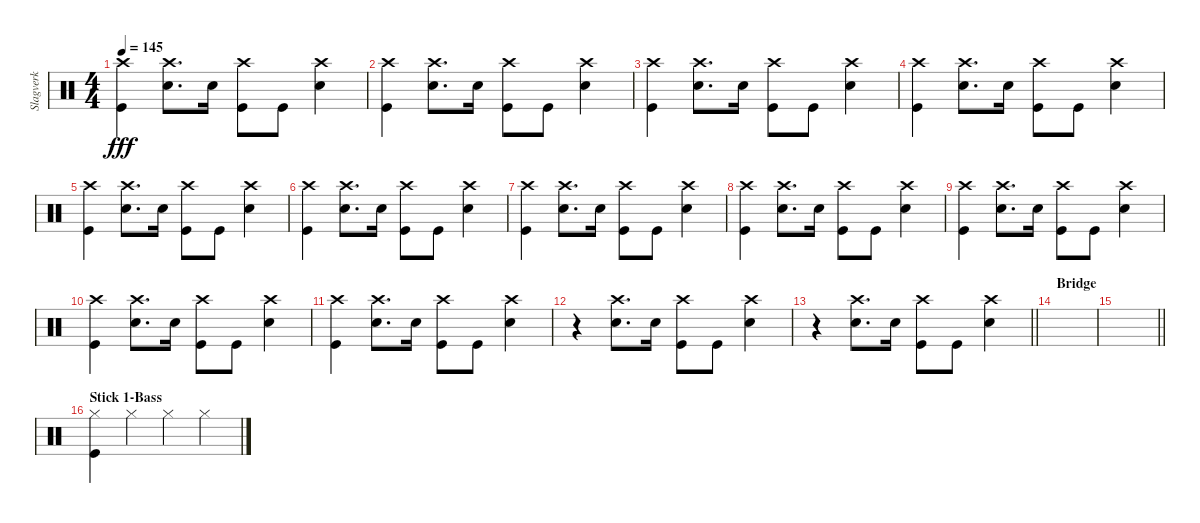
\track ("Slagverk" "Slagverk") {instrument percussion}
\staff {score}
\articulation defaults
\ts (4 4)
\tempo 145
\clef neutral
\ks c
("Crash high (hit)" "Kick (hit)").4{dy fff} ("Crash high (hit)" "Snare (hit) 2").8{d} "Snare (hit) 2".16 ("Crash high (hit)" "Kick (hit)").8 "Kick (hit)".8 ("Crash high (hit)" "Snare (hit) 2").4 |
("Crash high (hit)" "Kick (hit)").4 ("Crash high (hit)" "Snare (hit) 2").8{d} "Snare (hit) 2".16 ("Crash high (hit)" "Kick (hit)").8 "Kick (hit)".8 ("Crash high (hit)" "Snare (hit) 2").4 |
("Crash high (hit)" "Kick (hit)").4 ("Crash high (hit)" "Snare (hit) 2").8{d} "Snare (hit) 2".16 ("Crash high (hit)" "Kick (hit)").8 "Kick (hit)".8 ("Crash high (hit)" "Snare (hit) 2").4 |
("Crash high (hit)" "Kick (hit)").4 ("Crash high (hit)" "Snare (hit) 2").8{d} "Snare (hit) 2".16 ("Crash high (hit)" "Kick (hit)").8 "Kick (hit)".8 ("Crash high (hit)" "Snare (hit) 2").4 |
("Crash high (hit)" "Kick (hit)").4 ("Crash high (hit)" "Snare (hit) 2").8{d} "Snare (hit) 2".16 ("Crash high (hit)" "Kick (hit)").8 "Kick (hit)".8 ("Crash high (hit)" "Snare (hit) 2").4 |
("Crash high (hit)" "Kick (hit)").4 ("Crash high (hit)" "Snare (hit) 2").8{d} "Snare (hit) 2".16 ("Crash high (hit)" "Kick (hit)").8 "Kick (hit)".8 ("Crash high (hit)" "Snare (hit) 2").4 |
("Crash high (hit)" "Kick (hit)").4 ("Crash high (hit)" "Snare (hit) 2").8{d} "Snare (hit) 2".16 ("Crash high (hit)" "Kick (hit)").8 "Kick (hit)".8 ("Crash high (hit)" "Snare (hit) 2").4 |
("Crash high (hit)" "Kick (hit)").4 ("Crash high (hit)" "Snare (hit) 2").8{d} "Snare (hit) 2".16 ("Crash high (hit)" "Kick (hit)").8 "Kick (hit)".8 ("Crash high (hit)" "Snare (hit) 2").4 |
("Crash high (hit)" "Kick (hit)").4 ("Crash high (hit)" "Snare (hit) 2").8{d} "Snare (hit) 2".16 ("Crash high (hit)" "Kick (hit)").8 "Kick (hit)".8 ("Crash high (hit)" "Snare (hit) 2").4 |
("Crash high (hit)" "Kick (hit)").4 ("Crash high (hit)" "Snare (hit) 2").8{d} "Snare (hit) 2".16 ("Crash high (hit)" "Kick (hit)").8 "Kick (hit)".8 ("Crash high (hit)" "Snare (hit) 2").4 |
("Crash high (hit)" "Kick (hit)").4 ("Crash high (hit)" "Snare (hit) 2").8{d} "Snare (hit) 2".16 ("Crash high (hit)" "Kick (hit)").8 "Kick (hit)".8 ("Crash high (hit)" "Snare (hit) 2").4 |
r.4 ("Crash high (hit)" "Snare (hit) 2").8{d} "Snare (hit) 2".16 ("Crash high (hit)" "Kick (hit)").8 "Kick (hit)".8 ("Crash high (hit)" "Snare (hit) 2").4 |
\barLineRight lightlight
r.4 ("Crash high (hit)" "Snare (hit) 2").8{d} "Snare (hit) 2".16 ("Crash high (hit)" "Kick (hit)").8 "Kick (hit)".8 ("Crash high (hit)" "Snare (hit) 2").4 |
\section ("" "Bridge")
|
\barLineRight lightlight
|
\section ("" "Stick 1-Bass")
("Hi-Hat (closed)" "Kick (hit)").4 "Hi-Hat (closed)".4 "Hi-Hat (closed)".4 "Hi-Hat (closed)".4
